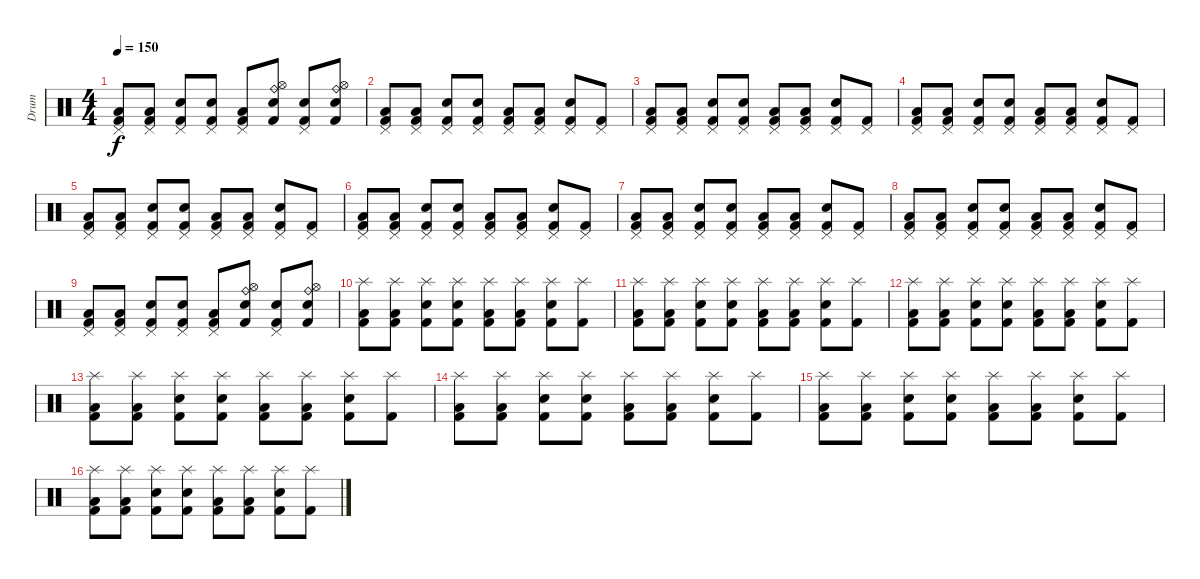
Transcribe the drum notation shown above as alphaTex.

\track ("Drum" "Drum") {instrument percussion}
\staff {score}
\articulation defaults
\ts (4 4)
\tempo 150
\clef neutral
\ks c
("Pedal Hi-Hat (hit)" "Low Floor Tom (hit)" "Kick (hit) 2").8{dy f} ("Pedal Hi-Hat (hit)" "Low Floor Tom (hit)" "Kick (hit) 2").8 ("Pedal Hi-Hat (hit)" "Snare (hit) 2" "Kick (hit) 2").8 ("Pedal Hi-Hat (hit)" "Snare (hit) 2" "Kick (hit) 2").8 ("Pedal Hi-Hat (hit)" "Low Floor Tom (hit)" "Kick (hit) 2").8 ("Ride (bell)" "Hi-Hat (open)" "Electric Snare (hit)" "Kick (hit) 2").8 ("Pedal Hi-Hat (hit)" "Snare (hit) 2" "Kick (hit) 2").8 ("Ride (bell)" "Hi-Hat (open)" "Electric Snare (hit)" "Kick (hit) 2").8 |
("Pedal Hi-Hat (hit)" "Low Floor Tom (hit)" "Kick (hit) 2").8 ("Pedal Hi-Hat (hit)" "Low Floor Tom (hit)" "Kick (hit) 2").8 ("Pedal Hi-Hat (hit)" "Snare (hit) 2" "Kick (hit) 2").8 ("Pedal Hi-Hat (hit)" "Snare (hit) 2" "Kick (hit) 2").8 ("Pedal Hi-Hat (hit)" "Low Floor Tom (hit)" "Kick (hit) 2").8 ("Pedal Hi-Hat (hit)" "Low Floor Tom (hit)" "Kick (hit) 2").8 ("Pedal Hi-Hat (hit)" "Snare (hit) 2" "Kick (hit) 2").8 ("Pedal Hi-Hat (hit)" "Kick (hit) 2").8 |
("Pedal Hi-Hat (hit)" "Low Floor Tom (hit)" "Kick (hit) 2").8 ("Pedal Hi-Hat (hit)" "Low Floor Tom (hit)" "Kick (hit) 2").8 ("Pedal Hi-Hat (hit)" "Snare (hit) 2" "Kick (hit) 2").8 ("Pedal Hi-Hat (hit)" "Snare (hit) 2" "Kick (hit) 2").8 ("Pedal Hi-Hat (hit)" "Low Floor Tom (hit)" "Kick (hit) 2").8 ("Pedal Hi-Hat (hit)" "Low Floor Tom (hit)" "Kick (hit) 2").8 ("Pedal Hi-Hat (hit)" "Snare (hit) 2" "Kick (hit) 2").8 ("Pedal Hi-Hat (hit)" "Kick (hit) 2").8 |
("Pedal Hi-Hat (hit)" "Low Floor Tom (hit)" "Kick (hit) 2").8 ("Pedal Hi-Hat (hit)" "Low Floor Tom (hit)" "Kick (hit) 2").8 ("Pedal Hi-Hat (hit)" "Snare (hit) 2" "Kick (hit) 2").8 ("Pedal Hi-Hat (hit)" "Snare (hit) 2" "Kick (hit) 2").8 ("Pedal Hi-Hat (hit)" "Low Floor Tom (hit)" "Kick (hit) 2").8 ("Pedal Hi-Hat (hit)" "Low Floor Tom (hit)" "Kick (hit) 2").8 ("Pedal Hi-Hat (hit)" "Snare (hit) 2" "Kick (hit) 2").8 ("Pedal Hi-Hat (hit)" "Kick (hit) 2").8 |
("Pedal Hi-Hat (hit)" "Low Floor Tom (hit)" "Kick (hit) 2").8 ("Pedal Hi-Hat (hit)" "Low Floor Tom (hit)" "Kick (hit) 2").8 ("Pedal Hi-Hat (hit)" "Snare (hit) 2" "Kick (hit) 2").8 ("Pedal Hi-Hat (hit)" "Snare (hit) 2" "Kick (hit) 2").8 ("Pedal Hi-Hat (hit)" "Low Floor Tom (hit)" "Kick (hit) 2").8 ("Pedal Hi-Hat (hit)" "Low Floor Tom (hit)" "Kick (hit) 2").8 ("Pedal Hi-Hat (hit)" "Snare (hit) 2" "Kick (hit) 2").8 ("Pedal Hi-Hat (hit)" "Kick (hit) 2").8 |
("Pedal Hi-Hat (hit)" "Low Floor Tom (hit)" "Kick (hit) 2").8 ("Pedal Hi-Hat (hit)" "Low Floor Tom (hit)" "Kick (hit) 2").8 ("Pedal Hi-Hat (hit)" "Snare (hit) 2" "Kick (hit) 2").8 ("Pedal Hi-Hat (hit)" "Snare (hit) 2" "Kick (hit) 2").8 ("Pedal Hi-Hat (hit)" "Low Floor Tom (hit)" "Kick (hit) 2").8 ("Pedal Hi-Hat (hit)" "Low Floor Tom (hit)" "Kick (hit) 2").8 ("Pedal Hi-Hat (hit)" "Snare (hit) 2" "Kick (hit) 2").8 ("Pedal Hi-Hat (hit)" "Kick (hit) 2").8 |
("Pedal Hi-Hat (hit)" "Low Floor Tom (hit)" "Kick (hit) 2").8 ("Pedal Hi-Hat (hit)" "Low Floor Tom (hit)" "Kick (hit) 2").8 ("Pedal Hi-Hat (hit)" "Snare (hit) 2" "Kick (hit) 2").8 ("Pedal Hi-Hat (hit)" "Snare (hit) 2" "Kick (hit) 2").8 ("Pedal Hi-Hat (hit)" "Low Floor Tom (hit)" "Kick (hit) 2").8 ("Pedal Hi-Hat (hit)" "Low Floor Tom (hit)" "Kick (hit) 2").8 ("Pedal Hi-Hat (hit)" "Snare (hit) 2" "Kick (hit) 2").8 ("Pedal Hi-Hat (hit)" "Kick (hit) 2").8 |
("Pedal Hi-Hat (hit)" "Low Floor Tom (hit)" "Kick (hit) 2").8 ("Pedal Hi-Hat (hit)" "Low Floor Tom (hit)" "Kick (hit) 2").8 ("Pedal Hi-Hat (hit)" "Snare (hit) 2" "Kick (hit) 2").8 ("Pedal Hi-Hat (hit)" "Snare (hit) 2" "Kick (hit) 2").8 ("Pedal Hi-Hat (hit)" "Low Floor Tom (hit)" "Kick (hit) 2").8 ("Pedal Hi-Hat (hit)" "Low Floor Tom (hit)" "Kick (hit) 2").8 ("Pedal Hi-Hat (hit)" "Snare (hit) 2" "Kick (hit) 2").8 ("Pedal Hi-Hat (hit)" "Kick (hit) 2").8 |
("Pedal Hi-Hat (hit)" "Low Floor Tom (hit)" "Kick (hit) 2").8 ("Pedal Hi-Hat (hit)" "Low Floor Tom (hit)" "Kick (hit) 2").8 ("Pedal Hi-Hat (hit)" "Snare (hit) 2" "Kick (hit) 2").8 ("Pedal Hi-Hat (hit)" "Snare (hit) 2" "Kick (hit) 2").8 ("Pedal Hi-Hat (hit)" "Low Floor Tom (hit)" "Kick (hit) 2").8 ("Ride (bell)" "Hi-Hat (open)" "Electric Snare (hit)" "Kick (hit) 2").8 ("Pedal Hi-Hat (hit)" "Snare (hit) 2" "Kick (hit) 2").8 ("Ride (bell)" "Hi-Hat (open)" "Electric Snare (hit)" "Kick (hit) 2").8 |
("Splash (hit)" "Low Floor Tom (hit)" "Kick (hit) 2").8 ("Splash (hit)" "Low Floor Tom (hit)" "Kick (hit) 2").8 ("Splash (hit)" "Snare (hit) 2" "Kick (hit) 2").8 ("Splash (hit)" "Snare (hit) 2" "Kick (hit) 2").8 ("Splash (hit)" "Low Floor Tom (hit)" "Kick (hit) 2").8 ("Splash (hit)" "Low Floor Tom (hit)" "Kick (hit) 2").8 ("Splash (hit)" "Snare (hit) 2" "Kick (hit) 2").8 ("Splash (hit)" "Kick (hit) 2").8 |
("Splash (hit)" "Low Floor Tom (hit)" "Kick (hit) 2").8 ("Splash (hit)" "Low Floor Tom (hit)" "Kick (hit) 2").8 ("Splash (hit)" "Snare (hit) 2" "Kick (hit) 2").8 ("Splash (hit)" "Snare (hit) 2" "Kick (hit) 2").8 ("Splash (hit)" "Low Floor Tom (hit)" "Kick (hit) 2").8 ("Splash (hit)" "Low Floor Tom (hit)" "Kick (hit) 2").8 ("Splash (hit)" "Snare (hit) 2" "Kick (hit) 2").8 ("Splash (hit)" "Kick (hit) 2").8 |
("Splash (hit)" "Low Floor Tom (hit)" "Kick (hit) 2").8 ("Splash (hit)" "Low Floor Tom (hit)" "Kick (hit) 2").8 ("Splash (hit)" "Snare (hit) 2" "Kick (hit) 2").8 ("Splash (hit)" "Snare (hit) 2" "Kick (hit) 2").8 ("Splash (hit)" "Low Floor Tom (hit)" "Kick (hit) 2").8 ("Splash (hit)" "Low Floor Tom (hit)" "Kick (hit) 2").8 ("Splash (hit)" "Snare (hit) 2" "Kick (hit) 2").8 ("Splash (hit)" "Kick (hit) 2").8 |
("Splash (hit)" "Low Floor Tom (hit)" "Kick (hit) 2").8 ("Splash (hit)" "Low Floor Tom (hit)" "Kick (hit) 2").8 ("Splash (hit)" "Snare (hit) 2" "Kick (hit) 2").8 ("Splash (hit)" "Snare (hit) 2" "Kick (hit) 2").8 ("Splash (hit)" "Low Floor Tom (hit)" "Kick (hit) 2").8 ("Splash (hit)" "Low Floor Tom (hit)" "Kick (hit) 2").8 ("Splash (hit)" "Snare (hit) 2" "Kick (hit) 2").8 ("Splash (hit)" "Kick (hit) 2").8 |
("Splash (hit)" "Low Floor Tom (hit)" "Kick (hit) 2").8 ("Splash (hit)" "Low Floor Tom (hit)" "Kick (hit) 2").8 ("Splash (hit)" "Snare (hit) 2" "Kick (hit) 2").8 ("Splash (hit)" "Snare (hit) 2" "Kick (hit) 2").8 ("Splash (hit)" "Low Floor Tom (hit)" "Kick (hit) 2").8 ("Splash (hit)" "Low Floor Tom (hit)" "Kick (hit) 2").8 ("Splash (hit)" "Snare (hit) 2" "Kick (hit) 2").8 ("Splash (hit)" "Kick (hit) 2").8 |
("Splash (hit)" "Low Floor Tom (hit)" "Kick (hit) 2").8 ("Splash (hit)" "Low Floor Tom (hit)" "Kick (hit) 2").8 ("Splash (hit)" "Snare (hit) 2" "Kick (hit) 2").8 ("Splash (hit)" "Snare (hit) 2" "Kick (hit) 2").8 ("Splash (hit)" "Low Floor Tom (hit)" "Kick (hit) 2").8 ("Splash (hit)" "Low Floor Tom (hit)" "Kick (hit) 2").8 ("Splash (hit)" "Snare (hit) 2" "Kick (hit) 2").8 ("Splash (hit)" "Kick (hit) 2").8 |
("Splash (hit)" "Low Floor Tom (hit)" "Kick (hit) 2").8 ("Splash (hit)" "Low Floor Tom (hit)" "Kick (hit) 2").8 ("Splash (hit)" "Snare (hit) 2" "Kick (hit) 2").8 ("Splash (hit)" "Snare (hit) 2" "Kick (hit) 2").8 ("Splash (hit)" "Low Floor Tom (hit)" "Kick (hit) 2").8 ("Splash (hit)" "Low Floor Tom (hit)" "Kick (hit) 2").8 ("Splash (hit)" "Snare (hit) 2" "Kick (hit) 2").8 ("Splash (hit)" "Kick (hit) 2").8
